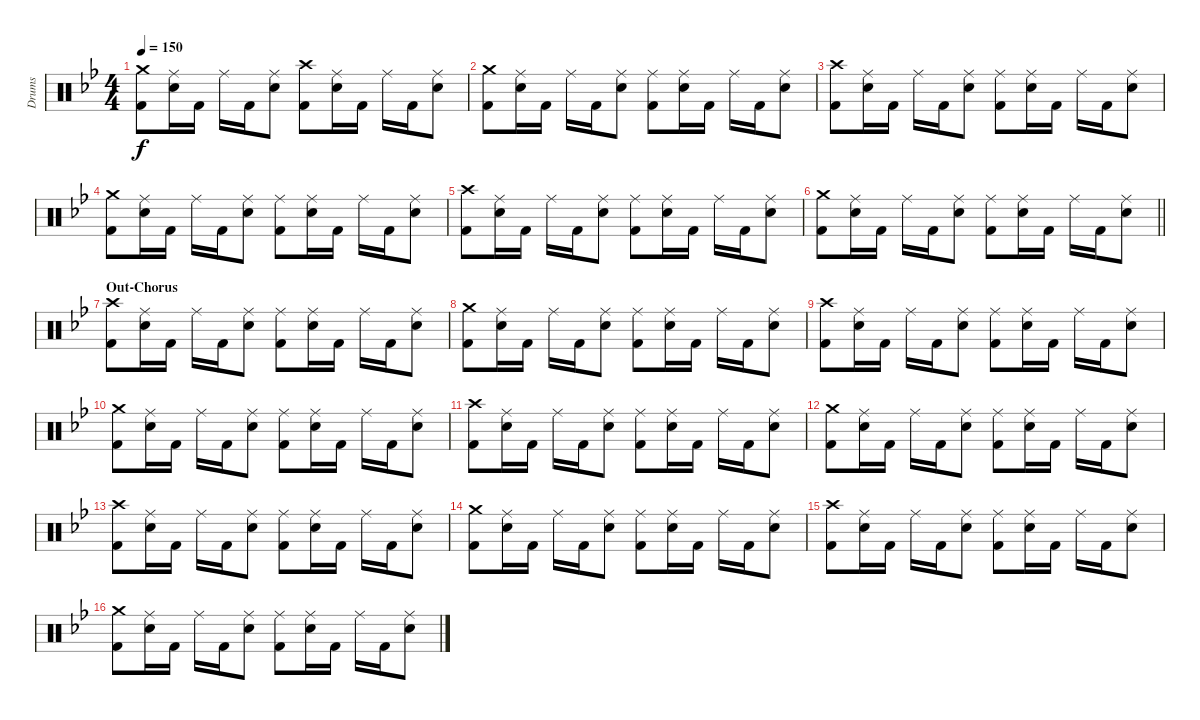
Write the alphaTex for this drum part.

\track ("Drums" "Drums") {instrument percussion}
\staff {score}
\articulation defaults
\ts (4 4)
\tempo 150
\clef neutral
\ks bb
("Crash medium (hit)" "Kick (hit) 2").8{dy f} ("Ride (middle)" "Snare (hit) 2").16 "Kick (hit) 2".16 "Ride (middle)".16 "Kick (hit) 2".16 ("Ride (middle)" "Snare (hit) 2").8 ("Crash high (hit)" "Kick (hit) 2").8 ("Ride (middle)" "Snare (hit) 2").16 "Kick (hit) 2".16 "Ride (middle)".16 "Kick (hit) 2".16 ("Ride (middle)" "Snare (hit) 2").8 |
("Crash medium (hit)" "Kick (hit) 2").8 ("Ride (middle)" "Snare (hit) 2").16 "Kick (hit) 2".16 "Ride (middle)".16 "Kick (hit) 2".16 ("Ride (middle)" "Snare (hit) 2").8 ("Ride (middle)" "Kick (hit) 2").8 ("Ride (middle)" "Snare (hit) 2").16 "Kick (hit) 2".16 "Ride (middle)".16 "Kick (hit) 2".16 ("Ride (middle)" "Snare (hit) 2").8 |
("Crash high (hit)" "Kick (hit) 2").8 ("Ride (middle)" "Snare (hit) 2").16 "Kick (hit) 2".16 "Ride (middle)".16 "Kick (hit) 2".16 ("Ride (middle)" "Snare (hit) 2").8 ("Ride (middle)" "Kick (hit) 2").8 ("Ride (middle)" "Snare (hit) 2").16 "Kick (hit) 2".16 "Ride (middle)".16 "Kick (hit) 2".16 ("Ride (middle)" "Snare (hit) 2").8 |
("Crash medium (hit)" "Kick (hit) 2").8 ("Ride (middle)" "Snare (hit) 2").16 "Kick (hit) 2".16 "Ride (middle)".16 "Kick (hit) 2".16 ("Ride (middle)" "Snare (hit) 2").8 ("Ride (middle)" "Kick (hit) 2").8 ("Ride (middle)" "Snare (hit) 2").16 "Kick (hit) 2".16 "Ride (middle)".16 "Kick (hit) 2".16 ("Ride (middle)" "Snare (hit) 2").8 |
("Crash high (hit)" "Kick (hit) 2").8 ("Ride (middle)" "Snare (hit) 2").16 "Kick (hit) 2".16 "Ride (middle)".16 "Kick (hit) 2".16 ("Ride (middle)" "Snare (hit) 2").8 ("Ride (middle)" "Kick (hit) 2").8 ("Ride (middle)" "Snare (hit) 2").16 "Kick (hit) 2".16 "Ride (middle)".16 "Kick (hit) 2".16 ("Ride (middle)" "Snare (hit) 2").8 |
\barLineRight lightlight
("Crash medium (hit)" "Kick (hit) 2").8 ("Ride (middle)" "Snare (hit) 2").16 "Kick (hit) 2".16 "Ride (middle)".16 "Kick (hit) 2".16 ("Ride (middle)" "Snare (hit) 2").8 ("Ride (middle)" "Kick (hit) 2").8 ("Ride (middle)" "Snare (hit) 2").16 "Kick (hit) 2".16 "Ride (middle)".16 "Kick (hit) 2".16 ("Ride (middle)" "Snare (hit) 2").8 |
\section ("" "Out-Chorus")
("Crash high (hit)" "Kick (hit) 2").8 ("Ride (middle)" "Snare (hit) 2").16 "Kick (hit) 2".16 "Ride (middle)".16 "Kick (hit) 2".16 ("Ride (middle)" "Snare (hit) 2").8 ("Ride (middle)" "Kick (hit) 2").8 ("Ride (middle)" "Snare (hit) 2").16 "Kick (hit) 2".16 "Ride (middle)".16 "Kick (hit) 2".16 ("Ride (middle)" "Snare (hit) 2").8 |
("Crash medium (hit)" "Kick (hit) 2").8 ("Ride (middle)" "Snare (hit) 2").16 "Kick (hit) 2".16 "Ride (middle)".16 "Kick (hit) 2".16 ("Ride (middle)" "Snare (hit) 2").8 ("Ride (middle)" "Kick (hit) 2").8 ("Ride (middle)" "Snare (hit) 2").16 "Kick (hit) 2".16 "Ride (middle)".16 "Kick (hit) 2".16 ("Ride (middle)" "Snare (hit) 2").8 |
("Crash high (hit)" "Kick (hit) 2").8 ("Ride (middle)" "Snare (hit) 2").16 "Kick (hit) 2".16 "Ride (middle)".16 "Kick (hit) 2".16 ("Ride (middle)" "Snare (hit) 2").8 ("Ride (middle)" "Kick (hit) 2").8 ("Ride (middle)" "Snare (hit) 2").16 "Kick (hit) 2".16 "Ride (middle)".16 "Kick (hit) 2".16 ("Ride (middle)" "Snare (hit) 2").8 |
("Crash medium (hit)" "Kick (hit) 2").8 ("Ride (middle)" "Snare (hit) 2").16 "Kick (hit) 2".16 "Ride (middle)".16 "Kick (hit) 2".16 ("Ride (middle)" "Snare (hit) 2").8 ("Ride (middle)" "Kick (hit) 2").8 ("Ride (middle)" "Snare (hit) 2").16 "Kick (hit) 2".16 "Ride (middle)".16 "Kick (hit) 2".16 ("Ride (middle)" "Snare (hit) 2").8 |
("Crash high (hit)" "Kick (hit) 2").8 ("Ride (middle)" "Snare (hit) 2").16 "Kick (hit) 2".16 "Ride (middle)".16 "Kick (hit) 2".16 ("Ride (middle)" "Snare (hit) 2").8 ("Ride (middle)" "Kick (hit) 2").8 ("Ride (middle)" "Snare (hit) 2").16 "Kick (hit) 2".16 "Ride (middle)".16 "Kick (hit) 2".16 ("Ride (middle)" "Snare (hit) 2").8 |
("Crash medium (hit)" "Kick (hit) 2").8 ("Ride (middle)" "Snare (hit) 2").16 "Kick (hit) 2".16 "Ride (middle)".16 "Kick (hit) 2".16 ("Ride (middle)" "Snare (hit) 2").8 ("Ride (middle)" "Kick (hit) 2").8 ("Ride (middle)" "Snare (hit) 2").16 "Kick (hit) 2".16 "Ride (middle)".16 "Kick (hit) 2".16 ("Ride (middle)" "Snare (hit) 2").8 |
("Crash high (hit)" "Kick (hit) 2").8 ("Ride (middle)" "Snare (hit) 2").16 "Kick (hit) 2".16 "Ride (middle)".16 "Kick (hit) 2".16 ("Ride (middle)" "Snare (hit) 2").8 ("Ride (middle)" "Kick (hit) 2").8 ("Ride (middle)" "Snare (hit) 2").16 "Kick (hit) 2".16 "Ride (middle)".16 "Kick (hit) 2".16 ("Ride (middle)" "Snare (hit) 2").8 |
("Crash medium (hit)" "Kick (hit) 2").8 ("Ride (middle)" "Snare (hit) 2").16 "Kick (hit) 2".16 "Ride (middle)".16 "Kick (hit) 2".16 ("Ride (middle)" "Snare (hit) 2").8 ("Ride (middle)" "Kick (hit) 2").8 ("Ride (middle)" "Snare (hit) 2").16 "Kick (hit) 2".16 "Ride (middle)".16 "Kick (hit) 2".16 ("Ride (middle)" "Snare (hit) 2").8 |
("Crash high (hit)" "Kick (hit) 2").8 ("Ride (middle)" "Snare (hit) 2").16 "Kick (hit) 2".16 "Ride (middle)".16 "Kick (hit) 2".16 ("Ride (middle)" "Snare (hit) 2").8 ("Ride (middle)" "Kick (hit) 2").8 ("Ride (middle)" "Snare (hit) 2").16 "Kick (hit) 2".16 "Ride (middle)".16 "Kick (hit) 2".16 ("Ride (middle)" "Snare (hit) 2").8 |
("Crash medium (hit)" "Kick (hit) 2").8 ("Ride (middle)" "Snare (hit) 2").16 "Kick (hit) 2".16 "Ride (middle)".16 "Kick (hit) 2".16 ("Ride (middle)" "Snare (hit) 2").8 ("Ride (middle)" "Kick (hit) 2").8 ("Ride (middle)" "Snare (hit) 2").16 "Kick (hit) 2".16 "Ride (middle)".16 "Kick (hit) 2".16 ("Ride (middle)" "Snare (hit) 2").8
